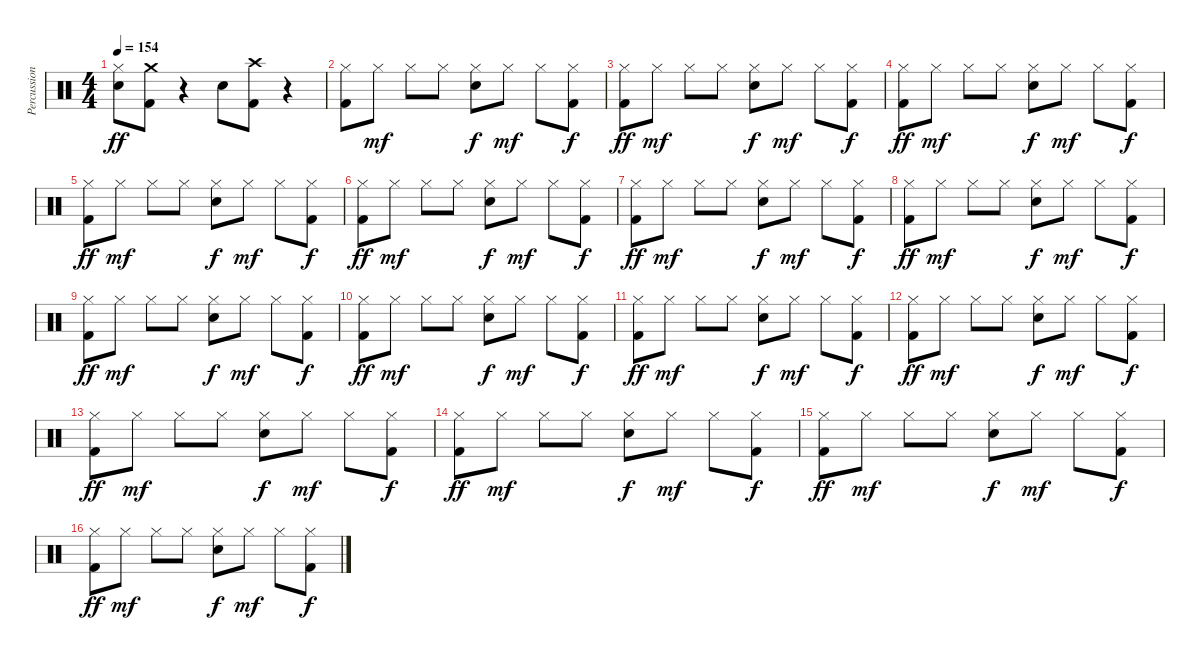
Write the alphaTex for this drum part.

\track ("Percussions" "Percussion") {instrument percussion}
\staff {score}
\articulation defaults
\ts (4 4)
\tempo 154
\clef neutral
\ks c
("Hi-Hat (closed)" "Electric Snare (hit)").8{dy ff} ("Crash medium (hit)" "Kick (hit) 2").8 r.4 "Electric Snare (hit)".8 ("Crash high (hit)" "Kick (hit) 2").8 r.4 |
("Hi-Hat (closed)" "Kick (hit) 2").8 "Hi-Hat (closed)".8{dy mf} "Hi-Hat (closed)".8 "Hi-Hat (closed)".8 ("Hi-Hat (closed)" "Electric Snare (hit)").8{dy f} "Hi-Hat (closed)".8{dy mf} "Hi-Hat (closed)".8 ("Hi-Hat (closed)" "Kick (hit) 2").8{dy f} |
("Hi-Hat (closed)" "Kick (hit) 2").8{dy ff} "Hi-Hat (closed)".8{dy mf} "Hi-Hat (closed)".8 "Hi-Hat (closed)".8 ("Hi-Hat (closed)" "Electric Snare (hit)").8{dy f} "Hi-Hat (closed)".8{dy mf} "Hi-Hat (closed)".8 ("Hi-Hat (closed)" "Kick (hit) 2").8{dy f} |
("Hi-Hat (closed)" "Kick (hit) 2").8{dy ff} "Hi-Hat (closed)".8{dy mf} "Hi-Hat (closed)".8 "Hi-Hat (closed)".8 ("Hi-Hat (closed)" "Electric Snare (hit)").8{dy f} "Hi-Hat (closed)".8{dy mf} "Hi-Hat (closed)".8 ("Hi-Hat (closed)" "Kick (hit) 2").8{dy f} |
("Hi-Hat (closed)" "Kick (hit) 2").8{dy ff} "Hi-Hat (closed)".8{dy mf} "Hi-Hat (closed)".8 "Hi-Hat (closed)".8 ("Hi-Hat (closed)" "Electric Snare (hit)").8{dy f} "Hi-Hat (closed)".8{dy mf} "Hi-Hat (closed)".8 ("Hi-Hat (closed)" "Kick (hit) 2").8{dy f} |
("Hi-Hat (closed)" "Kick (hit) 2").8{dy ff} "Hi-Hat (closed)".8{dy mf} "Hi-Hat (closed)".8 "Hi-Hat (closed)".8 ("Hi-Hat (closed)" "Electric Snare (hit)").8{dy f} "Hi-Hat (closed)".8{dy mf} "Hi-Hat (closed)".8 ("Hi-Hat (closed)" "Kick (hit) 2").8{dy f} |
("Hi-Hat (closed)" "Kick (hit) 2").8{dy ff} "Hi-Hat (closed)".8{dy mf} "Hi-Hat (closed)".8 "Hi-Hat (closed)".8 ("Hi-Hat (closed)" "Electric Snare (hit)").8{dy f} "Hi-Hat (closed)".8{dy mf} "Hi-Hat (closed)".8 ("Hi-Hat (closed)" "Kick (hit) 2").8{dy f} |
("Hi-Hat (closed)" "Kick (hit) 2").8{dy ff} "Hi-Hat (closed)".8{dy mf} "Hi-Hat (closed)".8 "Hi-Hat (closed)".8 ("Hi-Hat (closed)" "Electric Snare (hit)").8{dy f} "Hi-Hat (closed)".8{dy mf} "Hi-Hat (closed)".8 ("Hi-Hat (closed)" "Kick (hit) 2").8{dy f} |
("Hi-Hat (closed)" "Kick (hit) 2").8{dy ff} "Hi-Hat (closed)".8{dy mf} "Hi-Hat (closed)".8 "Hi-Hat (closed)".8 ("Hi-Hat (closed)" "Electric Snare (hit)").8{dy f} "Hi-Hat (closed)".8{dy mf} "Hi-Hat (closed)".8 ("Hi-Hat (closed)" "Kick (hit) 2").8{dy f} |
("Hi-Hat (closed)" "Kick (hit) 2").8{dy ff} "Hi-Hat (closed)".8{dy mf} "Hi-Hat (closed)".8 "Hi-Hat (closed)".8 ("Hi-Hat (closed)" "Electric Snare (hit)").8{dy f} "Hi-Hat (closed)".8{dy mf} "Hi-Hat (closed)".8 ("Hi-Hat (closed)" "Kick (hit) 2").8{dy f} |
("Hi-Hat (closed)" "Kick (hit) 2").8{dy ff} "Hi-Hat (closed)".8{dy mf} "Hi-Hat (closed)".8 "Hi-Hat (closed)".8 ("Hi-Hat (closed)" "Electric Snare (hit)").8{dy f} "Hi-Hat (closed)".8{dy mf} "Hi-Hat (closed)".8 ("Hi-Hat (closed)" "Kick (hit) 2").8{dy f} |
("Hi-Hat (closed)" "Kick (hit) 2").8{dy ff} "Hi-Hat (closed)".8{dy mf} "Hi-Hat (closed)".8 "Hi-Hat (closed)".8 ("Hi-Hat (closed)" "Electric Snare (hit)").8{dy f} "Hi-Hat (closed)".8{dy mf} "Hi-Hat (closed)".8 ("Hi-Hat (closed)" "Kick (hit) 2").8{dy f} |
("Hi-Hat (closed)" "Kick (hit) 2").8{dy ff} "Hi-Hat (closed)".8{dy mf} "Hi-Hat (closed)".8 "Hi-Hat (closed)".8 ("Hi-Hat (closed)" "Electric Snare (hit)").8{dy f} "Hi-Hat (closed)".8{dy mf} "Hi-Hat (closed)".8 ("Hi-Hat (closed)" "Kick (hit) 2").8{dy f} |
("Hi-Hat (closed)" "Kick (hit) 2").8{dy ff} "Hi-Hat (closed)".8{dy mf} "Hi-Hat (closed)".8 "Hi-Hat (closed)".8 ("Hi-Hat (closed)" "Electric Snare (hit)").8{dy f} "Hi-Hat (closed)".8{dy mf} "Hi-Hat (closed)".8 ("Hi-Hat (closed)" "Kick (hit) 2").8{dy f} |
("Hi-Hat (closed)" "Kick (hit) 2").8{dy ff} "Hi-Hat (closed)".8{dy mf} "Hi-Hat (closed)".8 "Hi-Hat (closed)".8 ("Hi-Hat (closed)" "Electric Snare (hit)").8{dy f} "Hi-Hat (closed)".8{dy mf} "Hi-Hat (closed)".8 ("Hi-Hat (closed)" "Kick (hit) 2").8{dy f} |
("Hi-Hat (closed)" "Kick (hit) 2").8{dy ff} "Hi-Hat (closed)".8{dy mf} "Hi-Hat (closed)".8 "Hi-Hat (closed)".8 ("Hi-Hat (closed)" "Electric Snare (hit)").8{dy f} "Hi-Hat (closed)".8{dy mf} "Hi-Hat (closed)".8 ("Hi-Hat (closed)" "Kick (hit) 2").8{dy f}
